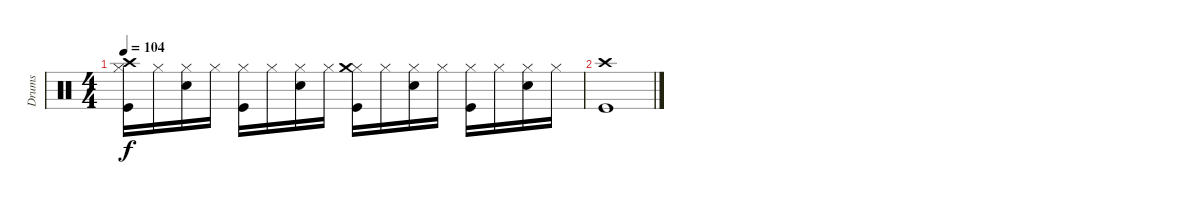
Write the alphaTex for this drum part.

\track ("Drums" "Drums") {instrument percussion}
\staff {score}
\articulation defaults
\ts (4 4)
\tempo 104
\clef neutral
\ks c
("Kick (hit)" "Hi-Hat (closed)" "Crash high (hit)").16{dy f} "Hi-Hat (closed)".16 ("Snare (hit) 2" "Hi-Hat (closed)").16 "Hi-Hat (closed)".16 ("Kick (hit)" "Hi-Hat (closed)").16 "Hi-Hat (closed)".16 ("Snare (hit) 2" "Hi-Hat (closed)").16 "Hi-Hat (closed)".16 ("Kick (hit)" "Hi-Hat (closed)" "Crash medium (hit)").16 "Hi-Hat (closed)".16 ("Snare (hit) 2" "Hi-Hat (closed)").16 "Hi-Hat (closed)".16 ("Kick (hit)" "Hi-Hat (closed)").16 "Hi-Hat (closed)".16 ("Snare (hit) 2" "Hi-Hat (closed)").16 "Hi-Hat (closed)".16 |
("Kick (hit)" "Crash high (hit)").1
